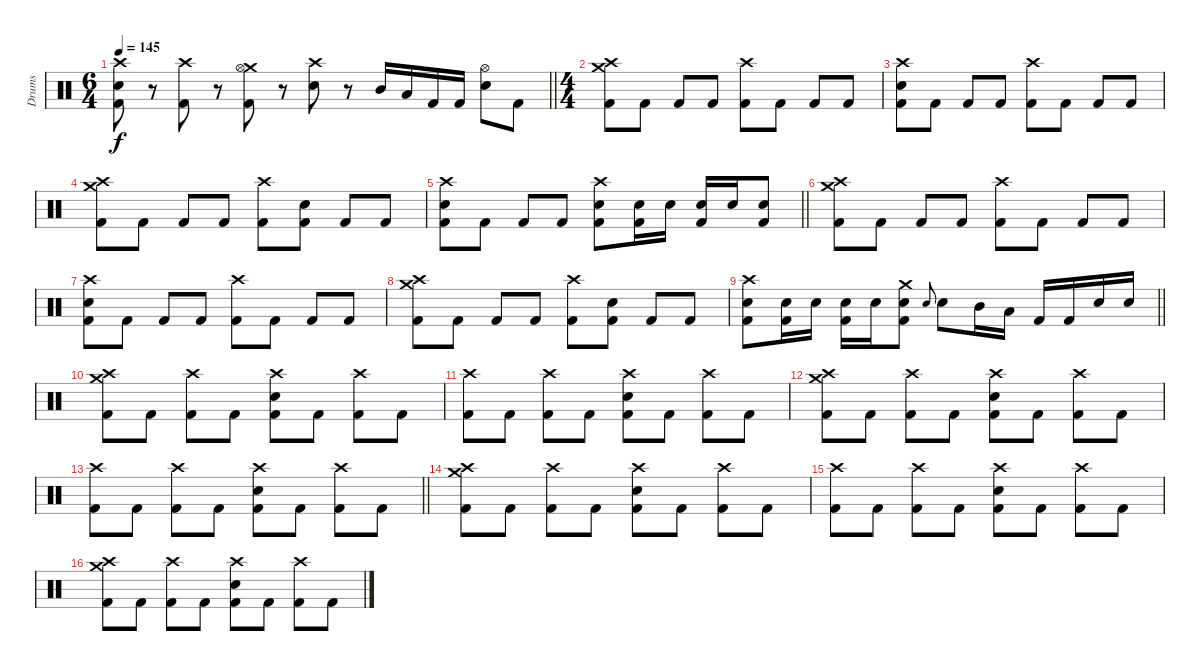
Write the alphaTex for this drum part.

\track ("Drums" "Drums") {instrument percussion}
\staff {score}
\articulation defaults
\ts (6 4)
\tempo 145
\clef neutral
\barLineRight lightlight
\ks c
("Crash high (hit)" "Electric Snare (hit)" "Kick (hit) 2").8{dy f} r.8 ("Crash high (hit)" "Kick (hit) 2").8 r.8 ("Crash medium (hit)" "Hi-Hat (open)" "Kick (hit) 2").8 r.8 ("Crash high (hit)" "Electric Snare (hit)").8 r.8 "Mid Tom (hit)".16 "Low Tom (hit)".16 "Kick (hit) 2".16 "Kick (hit) 2".16 ("Hi-Hat (open)" "Electric Snare (hit)").8 "Kick (hit) 2".8 |
\ts (4 4)
("Crash high (hit)" "Crash medium (hit)" "Kick (hit) 2").8 "Kick (hit) 2".8 "Kick (hit) 2".8 "Kick (hit) 2".8 ("Crash high (hit)" "Kick (hit) 2").8 "Kick (hit) 2".8 "Kick (hit) 2".8 "Kick (hit) 2".8 |
("Crash high (hit)" "Electric Snare (hit)" "Kick (hit) 2").8 "Kick (hit) 2".8 "Kick (hit) 2".8 "Kick (hit) 2".8 ("Crash high (hit)" "Kick (hit) 2").8 "Kick (hit) 2".8 "Kick (hit) 2".8 "Kick (hit) 2".8 |
("Crash high (hit)" "Crash medium (hit)" "Kick (hit) 2").8 "Kick (hit) 2".8 "Kick (hit) 2".8 "Kick (hit) 2".8 ("Crash high (hit)" "Kick (hit) 2").8 ("Electric Snare (hit)" "Kick (hit) 2").8 "Kick (hit) 2".8 "Kick (hit) 2".8 |
\barLineRight lightlight
("Crash high (hit)" "Electric Snare (hit)" "Kick (hit) 2").8 "Kick (hit) 2".8 "Kick (hit) 2".8 "Kick (hit) 2".8 ("Crash high (hit)" "Electric Snare (hit)" "Kick (hit) 2").8 ("Electric Snare (hit)" "Kick (hit) 2").16 "Electric Snare (hit)".16 ("Electric Snare (hit)" "Kick (hit) 2").16 "Electric Snare (hit)".16 ("Electric Snare (hit)" "Kick (hit) 2").8 |
("Crash high (hit)" "Crash medium (hit)" "Kick (hit) 2").8 "Kick (hit) 2".8 "Kick (hit) 2".8 "Kick (hit) 2".8 ("Crash high (hit)" "Kick (hit) 2").8 "Kick (hit) 2".8 "Kick (hit) 2".8 "Kick (hit) 2".8 |
("Crash high (hit)" "Electric Snare (hit)" "Kick (hit) 2").8 "Kick (hit) 2".8 "Kick (hit) 2".8 "Kick (hit) 2".8 ("Crash high (hit)" "Kick (hit) 2").8 "Kick (hit) 2".8 "Kick (hit) 2".8 "Kick (hit) 2".8 |
("Crash high (hit)" "Crash medium (hit)" "Kick (hit) 2").8 "Kick (hit) 2".8 "Kick (hit) 2".8 "Kick (hit) 2".8 ("Crash high (hit)" "Kick (hit) 2").8 ("Electric Snare (hit)" "Kick (hit) 2").8 "Kick (hit) 2".8 "Kick (hit) 2".8 |
\barLineRight lightlight
("Crash high (hit)" "Electric Snare (hit)" "Kick (hit) 2").8 ("Electric Snare (hit)" "Kick (hit) 2").16 "Electric Snare (hit)".16 ("Electric Snare (hit)" "Kick (hit) 2").16 "Electric Snare (hit)".16 ("Crash medium (hit)" "Electric Snare (hit)" "Kick (hit) 2").8 "Electric Snare (hit)".8{gr onbeat} "Electric Snare (hit)".8 "Mid Tom (hit)".16 "Low Tom (hit)".16 "Kick (hit) 2".16 "Kick (hit) 2".16 "Electric Snare (hit)".16 "Electric Snare (hit)".16 |
("Crash high (hit)" "Crash medium (hit)" "Kick (hit) 2").8 "Kick (hit) 2".8 ("Crash high (hit)" "Kick (hit) 2").8 "Kick (hit) 2".8 ("Crash high (hit)" "Electric Snare (hit)" "Kick (hit) 2").8 "Kick (hit) 2".8 ("Crash high (hit)" "Kick (hit) 2").8 "Kick (hit) 2".8 |
("Crash high (hit)" "Kick (hit) 2").8 "Kick (hit) 2".8 ("Crash high (hit)" "Kick (hit) 2").8 "Kick (hit) 2".8 ("Crash high (hit)" "Electric Snare (hit)" "Kick (hit) 2").8 "Kick (hit) 2".8 ("Crash high (hit)" "Kick (hit) 2").8 "Kick (hit) 2".8 |
("Crash high (hit)" "Crash medium (hit)" "Kick (hit) 2").8 "Kick (hit) 2".8 ("Crash high (hit)" "Kick (hit) 2").8 "Kick (hit) 2".8 ("Crash high (hit)" "Electric Snare (hit)" "Kick (hit) 2").8 "Kick (hit) 2".8 ("Crash high (hit)" "Kick (hit) 2").8 "Kick (hit) 2".8 |
\barLineRight lightlight
("Crash high (hit)" "Kick (hit) 2").8 "Kick (hit) 2".8 ("Crash high (hit)" "Kick (hit) 2").8 "Kick (hit) 2".8 ("Crash high (hit)" "Electric Snare (hit)" "Kick (hit) 2").8 "Kick (hit) 2".8 ("Crash high (hit)" "Kick (hit) 2").8 "Kick (hit) 2".8 |
("Crash high (hit)" "Crash medium (hit)" "Kick (hit) 2").8 "Kick (hit) 2".8 ("Crash high (hit)" "Kick (hit) 2").8 "Kick (hit) 2".8 ("Crash high (hit)" "Electric Snare (hit)" "Kick (hit) 2").8 "Kick (hit) 2".8 ("Crash high (hit)" "Kick (hit) 2").8 "Kick (hit) 2".8 |
("Crash high (hit)" "Kick (hit) 2").8 "Kick (hit) 2".8 ("Crash high (hit)" "Kick (hit) 2").8 "Kick (hit) 2".8 ("Crash high (hit)" "Electric Snare (hit)" "Kick (hit) 2").8 "Kick (hit) 2".8 ("Crash high (hit)" "Kick (hit) 2").8 "Kick (hit) 2".8 |
("Crash high (hit)" "Crash medium (hit)" "Kick (hit) 2").8 "Kick (hit) 2".8 ("Crash high (hit)" "Kick (hit) 2").8 "Kick (hit) 2".8 ("Crash high (hit)" "Electric Snare (hit)" "Kick (hit) 2").8 "Kick (hit) 2".8 ("Crash high (hit)" "Kick (hit) 2").8 "Kick (hit) 2".8
